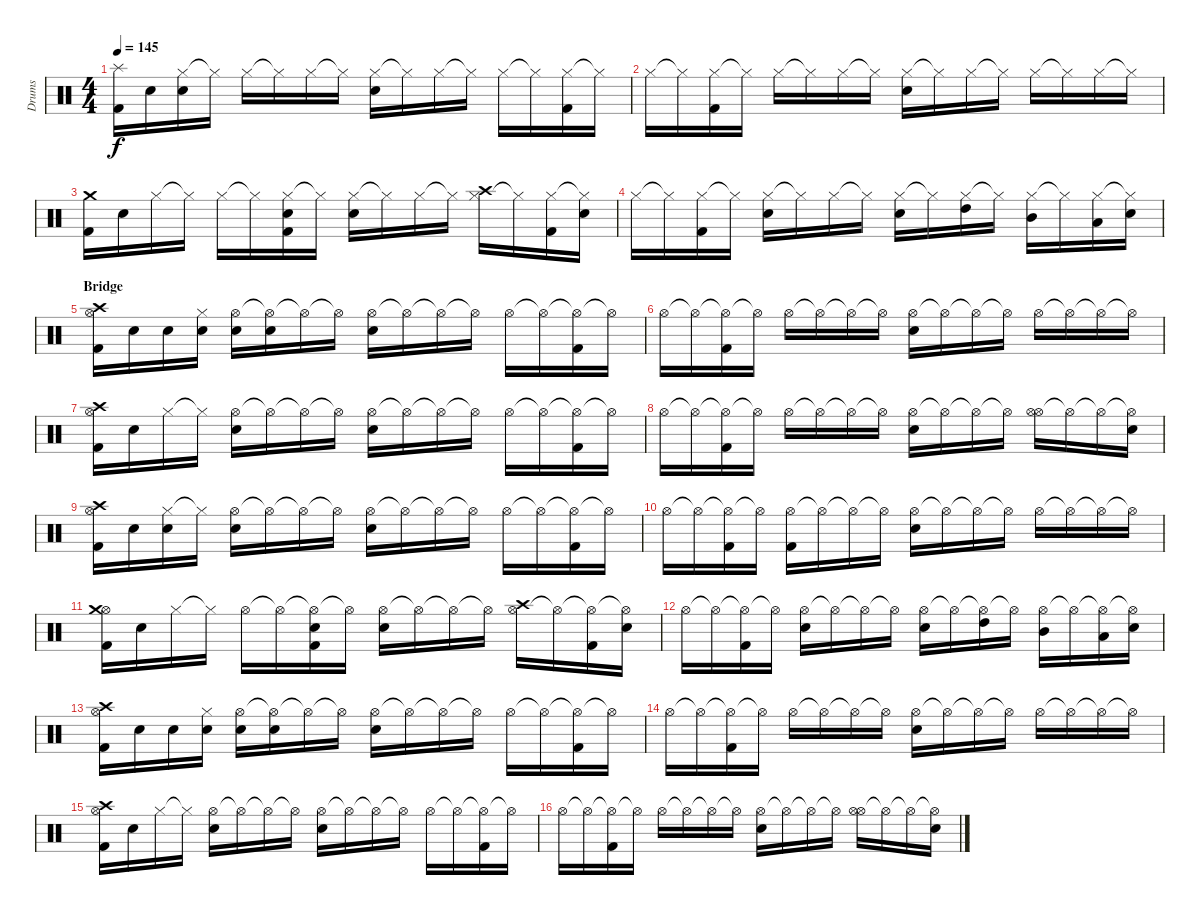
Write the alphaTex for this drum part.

\track ("Drums" "Drums") {instrument percussion}
\staff {score}
\articulation defaults
\ts (4 4)
\tempo 145
\clef neutral
\ks c
("Splash (hit)" "Kick (hit) 2").16{dy f} "Snare (hit)".16 ("Hi-Hat (closed)" "Snare (hit)").16 "Hi-Hat (closed)"{t}.16 "Hi-Hat (closed)".16 "Hi-Hat (closed)"{t}.16 "Hi-Hat (closed)".16 "Hi-Hat (closed)"{t}.16 ("Hi-Hat (closed)" "Snare (hit) 2").16 "Hi-Hat (closed)"{t}.16 "Hi-Hat (closed)".16 "Hi-Hat (closed)"{t}.16 "Hi-Hat (closed)".16 "Hi-Hat (closed)"{t}.16 ("Hi-Hat (closed)" "Kick (hit) 2").16 "Hi-Hat (closed)"{t}.16 |
"Hi-Hat (closed)".16 "Hi-Hat (closed)"{t}.16 ("Hi-Hat (closed)" "Kick (hit) 2").16 "Hi-Hat (closed)"{t}.16 "Hi-Hat (closed)".16 "Hi-Hat (closed)"{t}.16 "Hi-Hat (closed)".16 "Hi-Hat (closed)"{t}.16 ("Hi-Hat (closed)" "Snare (hit) 2").16 "Hi-Hat (closed)"{t}.16 "Hi-Hat (closed)".16 "Hi-Hat (closed)"{t}.16 "Hi-Hat (closed)".16 "Hi-Hat (closed)"{t}.16 "Hi-Hat (closed)".16 "Hi-Hat (closed)"{t}.16 |
("Crash medium (hit)" "Kick (hit) 2").16 "Snare (hit)".16 "Hi-Hat (closed)".16 "Hi-Hat (closed)"{t}.16 "Hi-Hat (closed)".16 "Hi-Hat (closed)"{t}.16 ("Hi-Hat (closed)" "Snare (hit)" "Kick (hit) 2").16 "Hi-Hat (closed)"{t}.16 ("Hi-Hat (closed)" "Snare (hit) 2").16 "Hi-Hat (closed)"{t}.16 "Hi-Hat (closed)".16 "Hi-Hat (closed)"{t}.16 ("Hi-Hat (closed)" "Crash high (hit)").16 "Hi-Hat (closed)"{t}.16 ("Hi-Hat (closed)" "Kick (hit) 2").16 ("Hi-Hat (closed)"{t} "Snare (hit)").16 |
"Hi-Hat (closed)".16 "Hi-Hat (closed)"{t}.16 ("Hi-Hat (closed)" "Kick (hit) 2").16 "Hi-Hat (closed)"{t}.16 ("Hi-Hat (closed)" "Snare (hit) 2").16 "Hi-Hat (closed)"{t}.16 "Hi-Hat (closed)".16 "Hi-Hat (closed)"{t}.16 ("Hi-Hat (closed)" "Snare (hit) 2").16 "Hi-Hat (closed)"{t}.16 ("Hi-Hat (closed)" "High Tom (hit)").16 "Hi-Hat (closed)"{t}.16 ("Hi-Hat (closed)" "Mid Tom (hit)").16 "Hi-Hat (closed)"{t}.16 ("Hi-Hat (closed)" "Low Tom (hit)").16 ("Hi-Hat (closed)"{t} "Snare (hit)").16 |
\section ("" "Bridge")
("Hi-Hat (open)" "Crash high (hit)" "Kick (hit) 2").16{volume 8} "Snare (hit)".16 "Snare (hit)".16 ("Hi-Hat (closed)" "Snare (hit)").16 ("Hi-Hat (open)" "Snare (hit)").16 ("Hi-Hat (open)"{t} "Snare (hit)").16 "Hi-Hat (open)"{t}.16 "Hi-Hat (open)"{t}.16 ("Hi-Hat (open)" "Snare (hit) 2").16 "Hi-Hat (open)"{t}.16 "Hi-Hat (open)"{t}.16 "Hi-Hat (open)"{t}.16 "Hi-Hat (open)".16 "Hi-Hat (open)"{t}.16 ("Hi-Hat (open)"{t} "Kick (hit) 2").16 "Hi-Hat (open)"{t}.16 |
"Hi-Hat (open)".16 "Hi-Hat (open)"{t}.16 ("Hi-Hat (open)"{t} "Kick (hit) 2").16 "Hi-Hat (open)"{t}.16 "Hi-Hat (open)".16 "Hi-Hat (open)"{t}.16 "Hi-Hat (open)"{t}.16 "Hi-Hat (open)"{t}.16 ("Hi-Hat (open)" "Snare (hit) 2").16 "Hi-Hat (open)"{t}.16 "Hi-Hat (open)"{t}.16 "Hi-Hat (open)"{t}.16 "Hi-Hat (open)".16 "Hi-Hat (open)"{t}.16 "Hi-Hat (open)"{t}.16 "Hi-Hat (open)"{t}.16 |
("Hi-Hat (open)" "Crash high (hit)" "Kick (hit) 2").16 "Snare (hit)".16 "Hi-Hat (closed)".16 "Hi-Hat (closed)"{t}.16 ("Hi-Hat (open)" "Snare (hit)").16 "Hi-Hat (open)"{t}.16 "Hi-Hat (open)"{t}.16 "Hi-Hat (open)"{t}.16 ("Hi-Hat (open)" "Snare (hit) 2").16 "Hi-Hat (open)"{t}.16 "Hi-Hat (open)"{t}.16 "Hi-Hat (open)"{t}.16 "Hi-Hat (open)".16 "Hi-Hat (open)"{t}.16 ("Hi-Hat (open)"{t} "Kick (hit) 2").16 "Hi-Hat (open)"{t}.16 |
"Hi-Hat (open)".16 "Hi-Hat (open)"{t}.16 ("Hi-Hat (open)"{t} "Kick (hit) 2").16 "Hi-Hat (open)"{t}.16 "Hi-Hat (open)".16 "Hi-Hat (open)"{t}.16 "Hi-Hat (open)"{t}.16 "Hi-Hat (open)"{t}.16 ("Hi-Hat (open)" "Snare (hit) 2").16 "Hi-Hat (open)"{t}.16 "Hi-Hat (open)"{t}.16 "Hi-Hat (open)"{t}.16 ("Hi-Hat (open)" "Hi-Hat (open)").16 "Hi-Hat (open)"{t}.16 "Hi-Hat (open)"{t}.16 ("Hi-Hat (open)"{t} "Snare (hit)").16 |
("Hi-Hat (open)" "Crash high (hit)" "Kick (hit) 2").16 "Snare (hit)".16 ("Hi-Hat (closed)" "Snare (hit)").16 "Hi-Hat (closed)"{t}.16 ("Hi-Hat (open)" "Snare (hit)").16 "Hi-Hat (open)"{t}.16 "Hi-Hat (open)"{t}.16 "Hi-Hat (open)"{t}.16 ("Hi-Hat (open)" "Snare (hit) 2").16 "Hi-Hat (open)"{t}.16 "Hi-Hat (open)"{t}.16 "Hi-Hat (open)"{t}.16 "Hi-Hat (open)".16 "Hi-Hat (open)"{t}.16 ("Hi-Hat (open)"{t} "Kick (hit) 2").16 "Hi-Hat (open)"{t}.16 |
"Hi-Hat (open)".16 "Hi-Hat (open)"{t}.16 ("Hi-Hat (open)"{t} "Kick (hit) 2").16 "Hi-Hat (open)"{t}.16 ("Hi-Hat (open)" "Kick (hit) 2").16 "Hi-Hat (open)"{t}.16 "Hi-Hat (open)"{t}.16 "Hi-Hat (open)"{t}.16 ("Hi-Hat (open)" "Snare (hit) 2").16 "Hi-Hat (open)"{t}.16 "Hi-Hat (open)"{t}.16 "Hi-Hat (open)"{t}.16 "Hi-Hat (open)".16 "Hi-Hat (open)"{t}.16 "Hi-Hat (open)"{t}.16 "Hi-Hat (open)"{t}.16 |
("Hi-Hat (open)" "Crash medium (hit)" "Kick (hit) 2").16 "Snare (hit)".16 "Hi-Hat (closed)".16 "Hi-Hat (closed)"{t}.16 "Hi-Hat (open)".16 "Hi-Hat (open)"{t}.16 ("Hi-Hat (open)"{t} "Snare (hit)" "Kick (hit) 2").16 "Hi-Hat (open)"{t}.16 ("Hi-Hat (open)" "Snare (hit) 2").16 "Hi-Hat (open)"{t}.16 "Hi-Hat (open)"{t}.16 "Hi-Hat (open)"{t}.16 ("Hi-Hat (open)" "Crash high (hit)").16 "Hi-Hat (open)"{t}.16 ("Hi-Hat (open)"{t} "Kick (hit) 2").16 ("Hi-Hat (open)"{t} "Snare (hit)").16 |
"Hi-Hat (open)".16 "Hi-Hat (open)"{t}.16 ("Hi-Hat (open)"{t} "Kick (hit) 2").16 "Hi-Hat (open)"{t}.16 ("Hi-Hat (open)" "Snare (hit) 2").16 "Hi-Hat (open)"{t}.16 "Hi-Hat (open)"{t}.16 "Hi-Hat (open)"{t}.16 ("Hi-Hat (open)" "Snare (hit) 2").16 "Hi-Hat (open)"{t}.16 ("Hi-Hat (open)"{t} "High Tom (hit)").16 "Hi-Hat (open)"{t}.16 ("Hi-Hat (open)" "Mid Tom (hit)").16 "Hi-Hat (open)"{t}.16 ("Hi-Hat (open)"{t} "Low Tom (hit)").16 ("Hi-Hat (open)"{t} "Snare (hit)").16 |
("Hi-Hat (open)" "Crash high (hit)" "Kick (hit) 2").16 "Snare (hit)".16 "Snare (hit)".16 ("Hi-Hat (closed)" "Snare (hit)").16 ("Hi-Hat (open)" "Snare (hit)").16 ("Hi-Hat (open)"{t} "Snare (hit)").16 "Hi-Hat (open)"{t}.16 "Hi-Hat (open)"{t}.16 ("Hi-Hat (open)" "Snare (hit) 2").16 "Hi-Hat (open)"{t}.16 "Hi-Hat (open)"{t}.16 "Hi-Hat (open)"{t}.16 "Hi-Hat (open)".16 "Hi-Hat (open)"{t}.16 ("Hi-Hat (open)"{t} "Kick (hit) 2").16 "Hi-Hat (open)"{t}.16 |
"Hi-Hat (open)".16 "Hi-Hat (open)"{t}.16 ("Hi-Hat (open)"{t} "Kick (hit) 2").16 "Hi-Hat (open)"{t}.16 "Hi-Hat (open)".16 "Hi-Hat (open)"{t}.16 "Hi-Hat (open)"{t}.16 "Hi-Hat (open)"{t}.16 ("Hi-Hat (open)" "Snare (hit) 2").16 "Hi-Hat (open)"{t}.16 "Hi-Hat (open)"{t}.16 "Hi-Hat (open)"{t}.16 "Hi-Hat (open)".16 "Hi-Hat (open)"{t}.16 "Hi-Hat (open)"{t}.16 "Hi-Hat (open)"{t}.16 |
("Hi-Hat (open)" "Crash high (hit)" "Kick (hit) 2").16 "Snare (hit)".16 "Hi-Hat (closed)".16 "Hi-Hat (closed)"{t}.16 ("Hi-Hat (open)" "Snare (hit)").16 "Hi-Hat (open)"{t}.16 "Hi-Hat (open)"{t}.16 "Hi-Hat (open)"{t}.16 ("Hi-Hat (open)" "Snare (hit) 2").16 "Hi-Hat (open)"{t}.16 "Hi-Hat (open)"{t}.16 "Hi-Hat (open)"{t}.16 "Hi-Hat (open)".16 "Hi-Hat (open)"{t}.16 ("Hi-Hat (open)"{t} "Kick (hit) 2").16 "Hi-Hat (open)"{t}.16 |
"Hi-Hat (open)".16 "Hi-Hat (open)"{t}.16 ("Hi-Hat (open)"{t} "Kick (hit) 2").16 "Hi-Hat (open)"{t}.16 "Hi-Hat (open)".16 "Hi-Hat (open)"{t}.16 "Hi-Hat (open)"{t}.16 "Hi-Hat (open)"{t}.16 ("Hi-Hat (open)" "Snare (hit) 2").16 "Hi-Hat (open)"{t}.16 "Hi-Hat (open)"{t}.16 "Hi-Hat (open)"{t}.16 ("Hi-Hat (open)" "Hi-Hat (open)").16 "Hi-Hat (open)"{t}.16 "Hi-Hat (open)"{t}.16 ("Hi-Hat (open)"{t} "Snare (hit)").16
